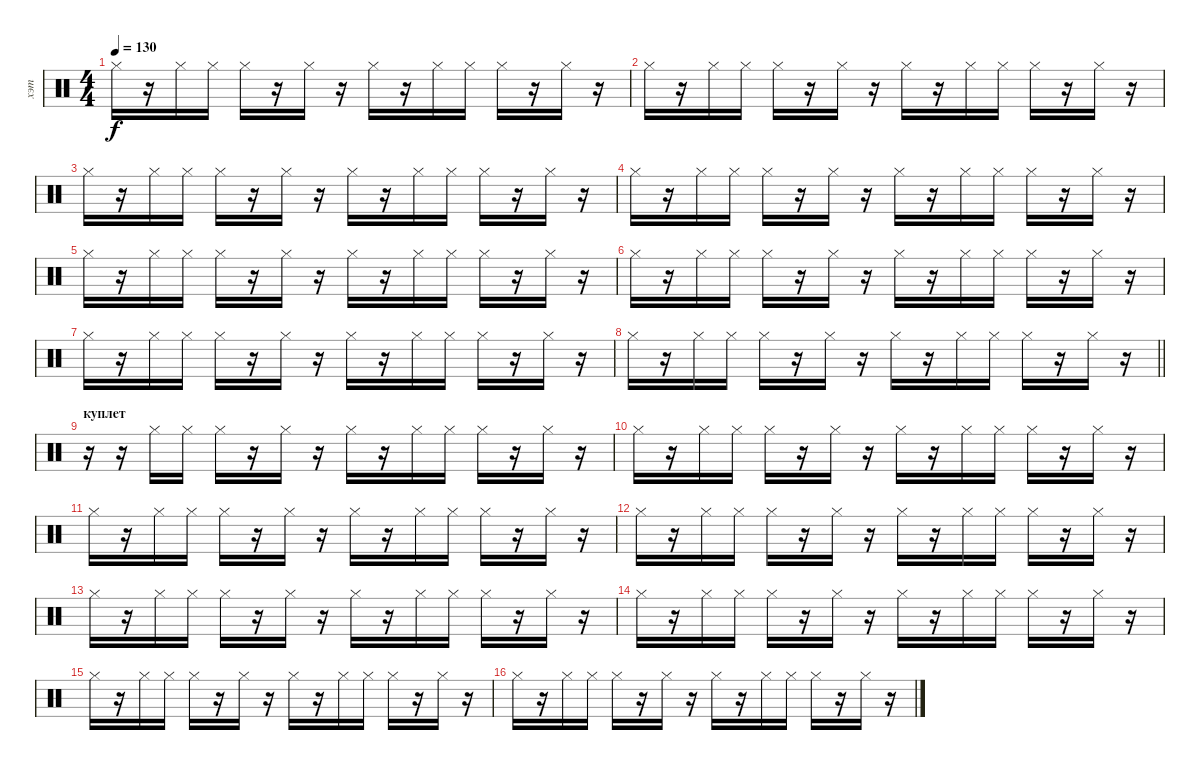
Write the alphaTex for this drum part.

\track ("хэт" "хэт") {instrument percussion}
\staff {score}
\articulation defaults
\ts (4 4)
\tempo 130
\clef neutral
\ks c "Hi-Hat (closed)".16{dy f}
r.16 "Hi-Hat (closed)".16 "Hi-Hat (closed)".16 "Hi-Hat (closed)".16 r.16 "Hi-Hat (closed)".16 r.16 "Hi-Hat (closed)".16 r.16 "Hi-Hat (closed)".16 "Hi-Hat (closed)".16 "Hi-Hat (closed)".16 r.16 "Hi-Hat (closed)".16 r.16 |
"Hi-Hat (closed)".16 r.16 "Hi-Hat (closed)".16 "Hi-Hat (closed)".16 "Hi-Hat (closed)".16 r.16 "Hi-Hat (closed)".16 r.16 "Hi-Hat (closed)".16 r.16 "Hi-Hat (closed)".16 "Hi-Hat (closed)".16 "Hi-Hat (closed)".16 r.16 "Hi-Hat (closed)".16 r.16 |
"Hi-Hat (closed)".16 r.16 "Hi-Hat (closed)".16 "Hi-Hat (closed)".16 "Hi-Hat (closed)".16 r.16 "Hi-Hat (closed)".16 r.16 "Hi-Hat (closed)".16 r.16 "Hi-Hat (closed)".16 "Hi-Hat (closed)".16 "Hi-Hat (closed)".16 r.16 "Hi-Hat (closed)".16 r.16 |
"Hi-Hat (closed)".16 r.16 "Hi-Hat (closed)".16 "Hi-Hat (closed)".16 "Hi-Hat (closed)".16 r.16 "Hi-Hat (closed)".16 r.16 "Hi-Hat (closed)".16 r.16 "Hi-Hat (closed)".16 "Hi-Hat (closed)".16 "Hi-Hat (closed)".16 r.16 "Hi-Hat (closed)".16 r.16 |
"Hi-Hat (closed)".16 r.16 "Hi-Hat (closed)".16 "Hi-Hat (closed)".16 "Hi-Hat (closed)".16 r.16 "Hi-Hat (closed)".16 r.16 "Hi-Hat (closed)".16 r.16 "Hi-Hat (closed)".16 "Hi-Hat (closed)".16 "Hi-Hat (closed)".16 r.16 "Hi-Hat (closed)".16 r.16 |
"Hi-Hat (closed)".16 r.16 "Hi-Hat (closed)".16 "Hi-Hat (closed)".16 "Hi-Hat (closed)".16 r.16 "Hi-Hat (closed)".16 r.16 "Hi-Hat (closed)".16 r.16 "Hi-Hat (closed)".16 "Hi-Hat (closed)".16 "Hi-Hat (closed)".16 r.16 "Hi-Hat (closed)".16 r.16 |
"Hi-Hat (closed)".16 r.16 "Hi-Hat (closed)".16 "Hi-Hat (closed)".16 "Hi-Hat (closed)".16 r.16 "Hi-Hat (closed)".16 r.16 "Hi-Hat (closed)".16 r.16 "Hi-Hat (closed)".16 "Hi-Hat (closed)".16 "Hi-Hat (closed)".16 r.16 "Hi-Hat (closed)".16 r.16 |
\barLineRight lightlight "Hi-Hat (closed)".16
r.16 "Hi-Hat (closed)".16 "Hi-Hat (closed)".16 "Hi-Hat (closed)".16 r.16 "Hi-Hat (closed)".16 r.16 "Hi-Hat (closed)".16 r.16 "Hi-Hat (closed)".16 "Hi-Hat (closed)".16 "Hi-Hat (closed)".16 r.16 "Hi-Hat (closed)".16 r.16 |
\section ("" "куплет")
r.16 r.16 "Hi-Hat (closed)".16 "Hi-Hat (closed)".16 "Hi-Hat (closed)".16 r.16 "Hi-Hat (closed)".16 r.16 "Hi-Hat (closed)".16 r.16 "Hi-Hat (closed)".16 "Hi-Hat (closed)".16 "Hi-Hat (closed)".16 r.16 "Hi-Hat (closed)".16 r.16 |
"Hi-Hat (closed)".16 r.16 "Hi-Hat (closed)".16 "Hi-Hat (closed)".16 "Hi-Hat (closed)".16 r.16 "Hi-Hat (closed)".16 r.16 "Hi-Hat (closed)".16 r.16 "Hi-Hat (closed)".16 "Hi-Hat (closed)".16 "Hi-Hat (closed)".16 r.16 "Hi-Hat (closed)".16 r.16 |
"Hi-Hat (closed)".16 r.16 "Hi-Hat (closed)".16 "Hi-Hat (closed)".16 "Hi-Hat (closed)".16 r.16 "Hi-Hat (closed)".16 r.16 "Hi-Hat (closed)".16 r.16 "Hi-Hat (closed)".16 "Hi-Hat (closed)".16 "Hi-Hat (closed)".16 r.16 "Hi-Hat (closed)".16 r.16 |
"Hi-Hat (closed)".16 r.16 "Hi-Hat (closed)".16 "Hi-Hat (closed)".16 "Hi-Hat (closed)".16 r.16 "Hi-Hat (closed)".16 r.16 "Hi-Hat (closed)".16 r.16 "Hi-Hat (closed)".16 "Hi-Hat (closed)".16 "Hi-Hat (closed)".16 r.16 "Hi-Hat (closed)".16 r.16 |
"Hi-Hat (closed)".16 r.16 "Hi-Hat (closed)".16 "Hi-Hat (closed)".16 "Hi-Hat (closed)".16 r.16 "Hi-Hat (closed)".16 r.16 "Hi-Hat (closed)".16 r.16 "Hi-Hat (closed)".16 "Hi-Hat (closed)".16 "Hi-Hat (closed)".16 r.16 "Hi-Hat (closed)".16 r.16 |
"Hi-Hat (closed)".16 r.16 "Hi-Hat (closed)".16 "Hi-Hat (closed)".16 "Hi-Hat (closed)".16 r.16 "Hi-Hat (closed)".16 r.16 "Hi-Hat (closed)".16 r.16 "Hi-Hat (closed)".16 "Hi-Hat (closed)".16 "Hi-Hat (closed)".16 r.16 "Hi-Hat (closed)".16 r.16 |
"Hi-Hat (closed)".16 r.16 "Hi-Hat (closed)".16 "Hi-Hat (closed)".16 "Hi-Hat (closed)".16 r.16 "Hi-Hat (closed)".16 r.16 "Hi-Hat (closed)".16 r.16 "Hi-Hat (closed)".16 "Hi-Hat (closed)".16 "Hi-Hat (closed)".16 r.16 "Hi-Hat (closed)".16 r.16 |
"Hi-Hat (closed)".16 r.16 "Hi-Hat (closed)".16 "Hi-Hat (closed)".16 "Hi-Hat (closed)".16 r.16 "Hi-Hat (closed)".16 r.16 "Hi-Hat (closed)".16 r.16 "Hi-Hat (closed)".16 "Hi-Hat (closed)".16 "Hi-Hat (closed)".16 r.16 "Hi-Hat (closed)".16 r.16
